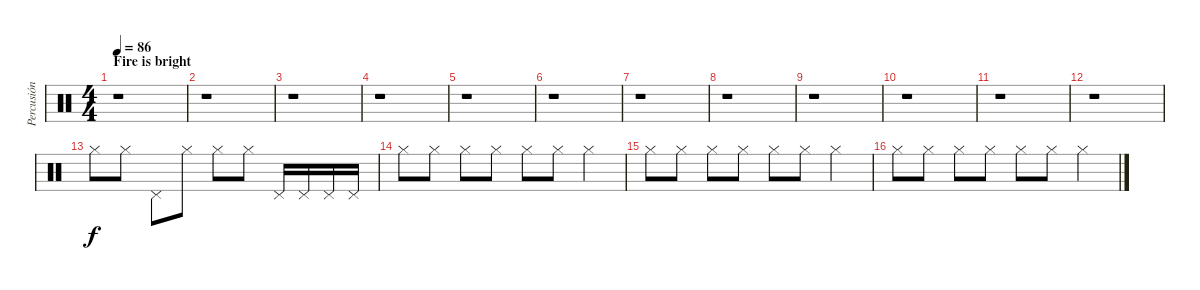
\track ("Percusión" "Percusión") {instrument percussion}
\staff {score}
\articulation defaults
\ts (4 4)
\section ("" "Fire is bright")
\tempo 86
\clef neutral
\ks c
r.1{dy f} |
r.1 |
r.1 |
r.1 |
r.1 |
r.1 |
r.1 |
r.1 |
r.1 |
r.1 |
r.1 |
r.1 |
"Hi-Hat (closed)".8 "Hi-Hat (closed)".8 "Pedal Hi-Hat (hit)".8 "Hi-Hat (closed)".8 "Hi-Hat (closed)".8 "Hi-Hat (closed)".8 "Pedal Hi-Hat (hit)".16 "Pedal Hi-Hat (hit)".16 "Pedal Hi-Hat (hit)".16 "Pedal Hi-Hat (hit)".16 |
"Hi-Hat (closed)".8 "Hi-Hat (closed)".8 "Hi-Hat (closed)".8 "Hi-Hat (closed)".8 "Hi-Hat (closed)".8 "Hi-Hat (closed)".8 "Hi-Hat (closed)".4 |
"Hi-Hat (closed)".8 "Hi-Hat (closed)".8 "Hi-Hat (closed)".8 "Hi-Hat (closed)".8 "Hi-Hat (closed)".8 "Hi-Hat (closed)".8 "Hi-Hat (closed)".4 |
"Hi-Hat (closed)".8 "Hi-Hat (closed)".8 "Hi-Hat (closed)".8 "Hi-Hat (closed)".8 "Hi-Hat (closed)".8 "Hi-Hat (closed)".8 "Hi-Hat (closed)".4
